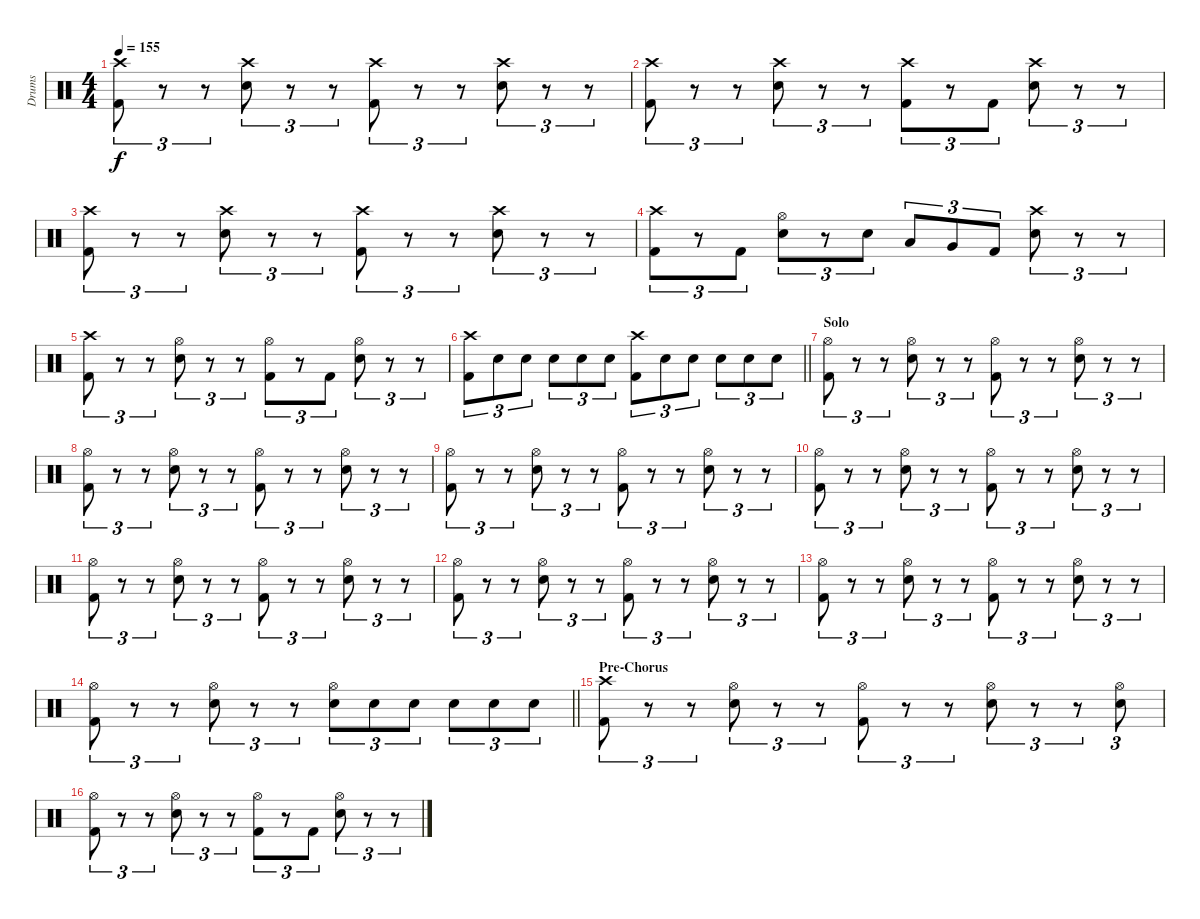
\track ("Drums" "Drums") {instrument percussion}
\staff {score}
\articulation defaults
\ts (4 4)
\tempo 155
\clef neutral
\ks c
("Crash high (hit)" "Kick (hit) 2").8{tu (3 2) dy f} r.8{tu (3 2)} r.8{tu (3 2)} ("Crash high (hit)" "Snare (hit) 2").8{tu (3 2)} r.8{tu (3 2)} r.8{tu (3 2)} ("Crash high (hit)" "Kick (hit) 2").8{tu (3 2)} r.8{tu (3 2)} r.8{tu (3 2)} ("Crash high (hit)" "Snare (hit) 2").8{tu (3 2)} r.8{tu (3 2)} r.8{tu (3 2)} |
("Crash high (hit)" "Kick (hit) 2").8{tu (3 2)} r.8{tu (3 2)} r.8{tu (3 2)} ("Crash high (hit)" "Snare (hit) 2").8{tu (3 2)} r.8{tu (3 2)} r.8{tu (3 2)} ("Crash high (hit)" "Kick (hit) 2").8{tu (3 2)} r.8{tu (3 2)} "Kick (hit) 2".8{tu (3 2)} ("Crash high (hit)" "Snare (hit) 2").8{tu (3 2)} r.8{tu (3 2)} r.8{tu (3 2)} |
("Crash high (hit)" "Kick (hit) 2").8{tu (3 2)} r.8{tu (3 2)} r.8{tu (3 2)} ("Crash high (hit)" "Snare (hit) 2").8{tu (3 2)} r.8{tu (3 2)} r.8{tu (3 2)} ("Crash high (hit)" "Kick (hit) 2").8{tu (3 2)} r.8{tu (3 2)} r.8{tu (3 2)} ("Crash high (hit)" "Snare (hit) 2").8{tu (3 2)} r.8{tu (3 2)} r.8{tu (3 2)} |
("Crash high (hit)" "Kick (hit) 2").8{tu (3 2)} r.8{tu (3 2)} "Kick (hit) 2".8{tu (3 2)} ("Hi-Hat (open)" "Snare (hit) 2").8{tu (3 2)} r.8{tu (3 2)} "Snare (hit) 2".8{tu (3 2)} "Low Tom (hit)".8{tu (3 2)} "Very Low Tom (hit)".8{tu (3 2)} "Kick (hit) 2".8{tu (3 2)} ("Crash high (hit)" "Snare (hit) 2").8{tu (3 2)} r.8{tu (3 2)} r.8{tu (3 2)} |
("Crash high (hit)" "Kick (hit) 2").8{tu (3 2)} r.8{tu (3 2)} r.8{tu (3 2)} ("Hi-Hat (open)" "Snare (hit) 2").8{tu (3 2)} r.8{tu (3 2)} r.8{tu (3 2)} ("Hi-Hat (open)" "Kick (hit) 2").8{tu (3 2)} r.8{tu (3 2)} "Kick (hit) 2".8{tu (3 2)} ("Hi-Hat (open)" "Snare (hit) 2").8{tu (3 2)} r.8{tu (3 2)} r.8{tu (3 2)} |
\barLineRight lightlight
("Crash high (hit)" "Kick (hit) 2").8{tu (3 2)} "Snare (hit) 2".8{tu (3 2)} "Snare (hit) 2".8{tu (3 2)} "Snare (hit) 2".8{tu (3 2)} "Snare (hit) 2".8{tu (3 2)} "Snare (hit) 2".8{tu (3 2)} ("Crash high (hit)" "Kick (hit) 2").8{tu (3 2)} "Snare (hit) 2".8{tu (3 2)} "Snare (hit) 2".8{tu (3 2)} "Snare (hit) 2".8{tu (3 2)} "Snare (hit) 2".8{tu (3 2)} "Snare (hit) 2".8{tu (3 2)} |
\section ("" "Solo")
("Hi-Hat (open)" "Kick (hit) 2").8{tu (3 2)} r.8{tu (3 2)} r.8{tu (3 2)} ("Hi-Hat (open)" "Snare (hit) 2").8{tu (3 2)} r.8{tu (3 2)} r.8{tu (3 2)} ("Hi-Hat (open)" "Kick (hit) 2").8{tu (3 2)} r.8{tu (3 2)} r.8{tu (3 2)} ("Hi-Hat (open)" "Snare (hit) 2").8{tu (3 2)} r.8{tu (3 2)} r.8{tu (3 2)} |
("Hi-Hat (open)" "Kick (hit) 2").8{tu (3 2)} r.8{tu (3 2)} r.8{tu (3 2)} ("Hi-Hat (open)" "Snare (hit) 2").8{tu (3 2)} r.8{tu (3 2)} r.8{tu (3 2)} ("Hi-Hat (open)" "Kick (hit) 2").8{tu (3 2)} r.8{tu (3 2)} r.8{tu (3 2)} ("Hi-Hat (open)" "Snare (hit) 2").8{tu (3 2)} r.8{tu (3 2)} r.8{tu (3 2)} |
("Hi-Hat (open)" "Kick (hit) 2").8{tu (3 2)} r.8{tu (3 2)} r.8{tu (3 2)} ("Hi-Hat (open)" "Snare (hit) 2").8{tu (3 2)} r.8{tu (3 2)} r.8{tu (3 2)} ("Hi-Hat (open)" "Kick (hit) 2").8{tu (3 2)} r.8{tu (3 2)} r.8{tu (3 2)} ("Hi-Hat (open)" "Snare (hit) 2").8{tu (3 2)} r.8{tu (3 2)} r.8{tu (3 2)} |
("Hi-Hat (open)" "Kick (hit) 2").8{tu (3 2)} r.8{tu (3 2)} r.8{tu (3 2)} ("Hi-Hat (open)" "Snare (hit) 2").8{tu (3 2)} r.8{tu (3 2)} r.8{tu (3 2)} ("Hi-Hat (open)" "Kick (hit) 2").8{tu (3 2)} r.8{tu (3 2)} r.8{tu (3 2)} ("Hi-Hat (open)" "Snare (hit) 2").8{tu (3 2)} r.8{tu (3 2)} r.8{tu (3 2)} |
("Hi-Hat (open)" "Kick (hit) 2").8{tu (3 2)} r.8{tu (3 2)} r.8{tu (3 2)} ("Hi-Hat (open)" "Snare (hit) 2").8{tu (3 2)} r.8{tu (3 2)} r.8{tu (3 2)} ("Hi-Hat (open)" "Kick (hit) 2").8{tu (3 2)} r.8{tu (3 2)} r.8{tu (3 2)} ("Hi-Hat (open)" "Snare (hit) 2").8{tu (3 2)} r.8{tu (3 2)} r.8{tu (3 2)} |
("Hi-Hat (open)" "Kick (hit) 2").8{tu (3 2)} r.8{tu (3 2)} r.8{tu (3 2)} ("Hi-Hat (open)" "Snare (hit) 2").8{tu (3 2)} r.8{tu (3 2)} r.8{tu (3 2)} ("Hi-Hat (open)" "Kick (hit) 2").8{tu (3 2)} r.8{tu (3 2)} r.8{tu (3 2)} ("Hi-Hat (open)" "Snare (hit) 2").8{tu (3 2)} r.8{tu (3 2)} r.8{tu (3 2)} |
("Hi-Hat (open)" "Kick (hit) 2").8{tu (3 2)} r.8{tu (3 2)} r.8{tu (3 2)} ("Hi-Hat (open)" "Snare (hit) 2").8{tu (3 2)} r.8{tu (3 2)} r.8{tu (3 2)} ("Hi-Hat (open)" "Kick (hit) 2").8{tu (3 2)} r.8{tu (3 2)} r.8{tu (3 2)} ("Hi-Hat (open)" "Snare (hit) 2").8{tu (3 2)} r.8{tu (3 2)} r.8{tu (3 2)} |
\barLineRight lightlight
("Hi-Hat (open)" "Kick (hit) 2").8{tu (3 2)} r.8{tu (3 2)} r.8{tu (3 2)} ("Hi-Hat (open)" "Snare (hit) 2").8{tu (3 2)} r.8{tu (3 2)} r.8{tu (3 2)} ("Hi-Hat (open)" "Snare (hit) 2").8{tu (3 2)} "Snare (hit) 2".8{tu (3 2)} "Snare (hit) 2".8{tu (3 2)} "Snare (hit) 2".8{tu (3 2)} "Snare (hit) 2".8{tu (3 2)} "Snare (hit) 2".8{tu (3 2)} |
\section ("" "Pre-Chorus")
("Crash high (hit)" "Kick (hit) 2").8{tu (3 2)} r.8{tu (3 2)} r.8{tu (3 2)} ("Hi-Hat (open)" "Snare (hit) 2").8{tu (3 2)} r.8{tu (3 2)} r.8{tu (3 2)} ("Hi-Hat (open)" "Kick (hit) 2").8{tu (3 2)} r.8{tu (3 2)} r.8{tu (3 2)} ("Hi-Hat (open)" "Snare (hit) 2").8{tu (3 2)} r.8{tu (3 2)} r.8{tu (3 2)} ("Hi-Hat (open)" "Snare (hit) 2").8{tu (3 2)} |
("Hi-Hat (open)" "Kick (hit) 2").8{tu (3 2)} r.8{tu (3 2)} r.8{tu (3 2)} ("Hi-Hat (open)" "Snare (hit) 2").8{tu (3 2)} r.8{tu (3 2)} r.8{tu (3 2)} ("Hi-Hat (open)" "Kick (hit) 2").8{tu (3 2)} r.8{tu (3 2)} "Kick (hit) 2".8{tu (3 2)} ("Hi-Hat (open)" "Snare (hit) 2").8{tu (3 2)} r.8{tu (3 2)} r.8{tu (3 2)}
